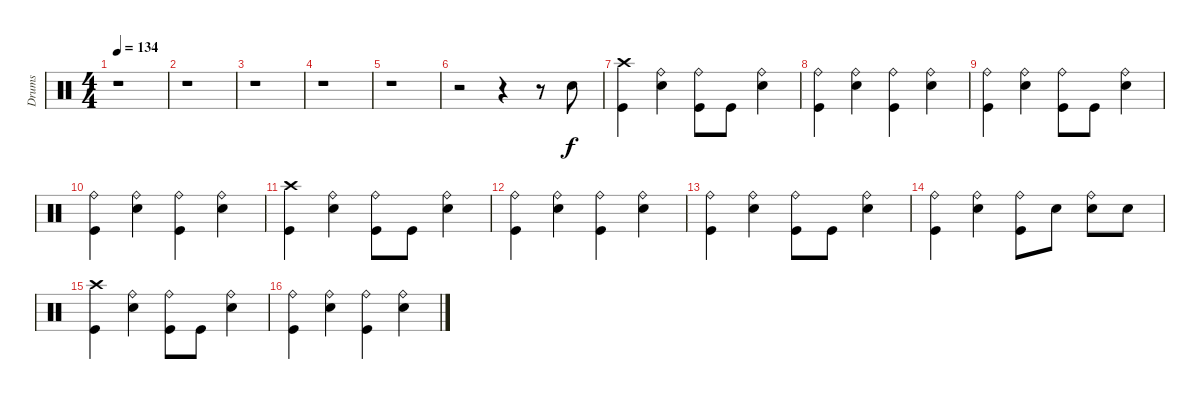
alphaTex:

\track ("Drums" "Drums") {instrument percussion}
\staff {score}
\articulation defaults
\ts (4 4)
\tempo 134
\clef neutral
\ks c
r.1{dy f} |
r.1 |
r.1 |
r.1 |
r.1 |
r.2 r.4 r.8 "Snare (hit) 2".8 |
("Crash high (hit)" "Kick (hit)").4 ("Ride (bell)" "Snare (hit) 2").4 ("Ride (bell)" "Kick (hit)").8 "Kick (hit)".8 ("Ride (bell)" "Snare (hit) 2").4 |
("Ride (bell)" "Kick (hit)").4 ("Ride (bell)" "Snare (hit) 2").4 ("Ride (bell)" "Kick (hit)").4 ("Ride (bell)" "Snare (hit) 2").4 |
("Ride (bell)" "Kick (hit)").4 ("Ride (bell)" "Snare (hit) 2").4 ("Ride (bell)" "Kick (hit)").8 "Kick (hit)".8 ("Ride (bell)" "Snare (hit) 2").4 |
("Ride (bell)" "Kick (hit)").4 ("Ride (bell)" "Snare (hit) 2").4 ("Ride (bell)" "Kick (hit)").4 ("Ride (bell)" "Snare (hit) 2").4 |
("Crash high (hit)" "Kick (hit)").4 ("Ride (bell)" "Snare (hit) 2").4 ("Ride (bell)" "Kick (hit)").8 "Kick (hit)".8 ("Ride (bell)" "Snare (hit) 2").4 |
("Ride (bell)" "Kick (hit)").4 ("Ride (bell)" "Snare (hit) 2").4 ("Ride (bell)" "Kick (hit)").4 ("Ride (bell)" "Snare (hit) 2").4 |
("Ride (bell)" "Kick (hit)").4 ("Ride (bell)" "Snare (hit) 2").4 ("Ride (bell)" "Kick (hit)").8 "Kick (hit)".8 ("Ride (bell)" "Snare (hit) 2").4 |
("Ride (bell)" "Kick (hit)").4 ("Ride (bell)" "Snare (hit) 2").4 ("Ride (bell)" "Kick (hit)").8 "Snare (hit) 2".8 ("Ride (bell)" "Snare (hit) 2").8 "Snare (hit) 2".8 |
("Crash high (hit)" "Kick (hit)").4 ("Ride (bell)" "Snare (hit) 2").4 ("Ride (bell)" "Kick (hit)").8 "Kick (hit)".8 ("Ride (bell)" "Snare (hit) 2").4 |
("Ride (bell)" "Kick (hit)").4 ("Ride (bell)" "Snare (hit) 2").4 ("Ride (bell)" "Kick (hit)").4 ("Ride (bell)" "Snare (hit) 2").4
